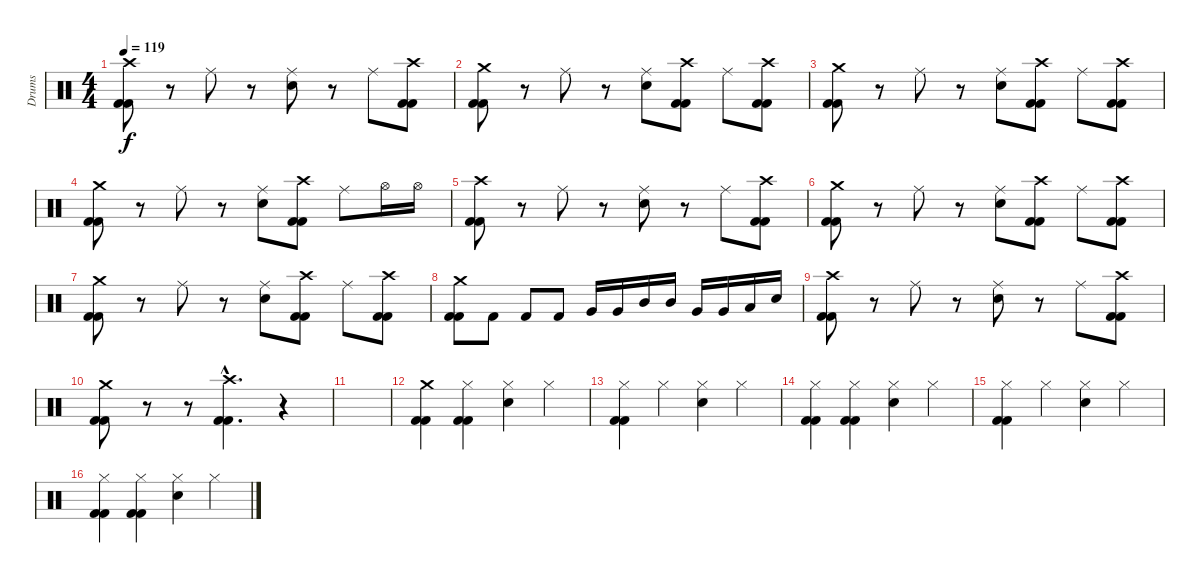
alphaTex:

\track ("Drums" "Drums") {instrument percussion}
\staff {score}
\articulation defaults
\ts (4 4)
\tempo 119
\clef neutral
\ks c
("Crash high (hit)" "Kick (hit) 2" "Kick (hit) 2").8{dy f} r.8 "Ride (middle)".8 r.8 ("Ride (middle)" "Electric Snare (hit)").8 r.8 "Ride (middle)".8 ("Crash high (hit)" "Kick (hit) 2" "Kick (hit) 2").8 |
("Crash medium (hit)" "Kick (hit) 2" "Kick (hit) 2").8 r.8 "Ride (middle)".8 r.8 ("Ride (middle)" "Electric Snare (hit)").8 ("Crash high (hit)" "Kick (hit) 2" "Kick (hit) 2").8 "Ride (middle)".8 ("Crash high (hit)" "Kick (hit) 2" "Kick (hit) 2").8 |
("Crash medium (hit)" "Kick (hit) 2" "Kick (hit) 2").8 r.8 "Ride (middle)".8 r.8 ("Ride (middle)" "Electric Snare (hit)").8 ("Crash high (hit)" "Kick (hit) 2" "Kick (hit) 2").8 "Ride (middle)".8 ("Crash high (hit)" "Kick (hit) 2" "Kick (hit) 2").8 |
("Crash medium (hit)" "Kick (hit) 2" "Kick (hit) 2").8 r.8 "Ride (middle)".8 r.8 ("Ride (middle)" "Electric Snare (hit)").8 ("Crash high (hit)" "Kick (hit) 2" "Kick (hit) 2").8 "Ride (middle)".8 "Hi-Hat (open)".16 "Hi-Hat (open)".16 |
("Crash high (hit)" "Kick (hit) 2" "Kick (hit) 2").8 r.8 "Ride (middle)".8 r.8 ("Ride (middle)" "Electric Snare (hit)").8 r.8 "Ride (middle)".8 ("Crash high (hit)" "Kick (hit) 2" "Kick (hit) 2").8 |
("Crash medium (hit)" "Kick (hit) 2" "Kick (hit) 2").8 r.8 "Ride (middle)".8 r.8 ("Ride (middle)" "Electric Snare (hit)").8 ("Crash high (hit)" "Kick (hit) 2" "Kick (hit) 2").8 "Ride (middle)".8 ("Crash high (hit)" "Kick (hit) 2" "Kick (hit) 2").8 |
("Crash medium (hit)" "Kick (hit) 2" "Kick (hit) 2").8 r.8 "Ride (middle)".8 r.8 ("Ride (middle)" "Electric Snare (hit)").8 ("Crash high (hit)" "Kick (hit) 2" "Kick (hit) 2").8 "Ride (middle)".8 ("Crash high (hit)" "Kick (hit) 2" "Kick (hit) 2").8 |
("Crash medium (hit)" "Kick (hit) 2" "Kick (hit) 2").8 "Kick (hit) 2".8 "Kick (hit) 2".8 "Kick (hit) 2".8 "Very Low Tom (hit)".16 "Very Low Tom (hit)".16 "Mid Tom (hit)".16 "Mid Tom (hit)".16 "Very Low Tom (hit)".16 "Very Low Tom (hit)".16 "Low Floor Tom (hit)".16 "Electric Snare (hit)".16 |
("Crash high (hit)" "Kick (hit) 2" "Kick (hit) 2").8 r.8 "Ride (middle)".8 r.8 ("Ride (middle)" "Electric Snare (hit)").8 r.8 "Ride (middle)".8 ("Crash high (hit)" "Kick (hit) 2" "Kick (hit) 2").8 |
("Crash medium (hit)" "Kick (hit) 2" "Kick (hit) 2").8 r.8 r.8 ("Crash high (hit)"{hac} "Kick (hit) 2"{hac} "Kick (hit) 2"{hac}).4{d} r.4 |
|
("Crash medium (hit)" "Kick (hit) 2" "Kick (hit) 2").4 ("Hi-Hat (closed)" "Kick (hit) 2" "Kick (hit) 2").4 ("Hi-Hat (closed)" "Electric Snare (hit)").4 "Hi-Hat (closed)".4 |
("Hi-Hat (closed)" "Kick (hit) 2" "Kick (hit) 2").4 "Hi-Hat (closed)".4 ("Hi-Hat (closed)" "Electric Snare (hit)").4 "Hi-Hat (closed)".4 |
("Hi-Hat (closed)" "Kick (hit) 2" "Kick (hit) 2").4 ("Hi-Hat (closed)" "Kick (hit) 2" "Kick (hit) 2").4 ("Hi-Hat (closed)" "Electric Snare (hit)").4 "Hi-Hat (closed)".4 |
("Hi-Hat (closed)" "Kick (hit) 2" "Kick (hit) 2").4 "Hi-Hat (closed)".4 ("Hi-Hat (closed)" "Electric Snare (hit)").4 "Hi-Hat (closed)".4 |
("Hi-Hat (closed)" "Kick (hit) 2" "Kick (hit) 2").4 ("Hi-Hat (closed)" "Kick (hit) 2" "Kick (hit) 2").4 ("Hi-Hat (closed)" "Electric Snare (hit)").4 "Hi-Hat (closed)".4
